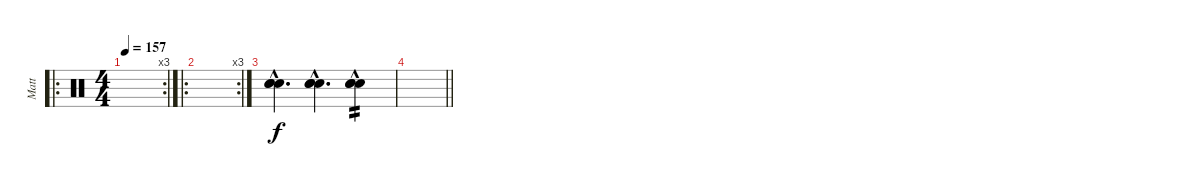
\track ("Matt" "Matt") {instrument percussion}
\staff {score}
\articulation defaults
\ro
\rc 3
\ts (4 4)
\tempo 157
\clef neutral
\ks c
|
\ro
\rc 3
|
("Snare (hit) 2"{hac} "Snare (hit) 2"{hac} "Snare (hit) 2"{hac}).4{d} ("Snare (hit) 2"{hac} "Snare (hit) 2"{hac} "Snare (hit) 2"{hac}).4{d} ("Snare (hit) 2"{hac} "Snare (hit) 2"{hac} "Snare (hit) 2"{hac}).4{tp 2} |
\barLineRight lightlight
